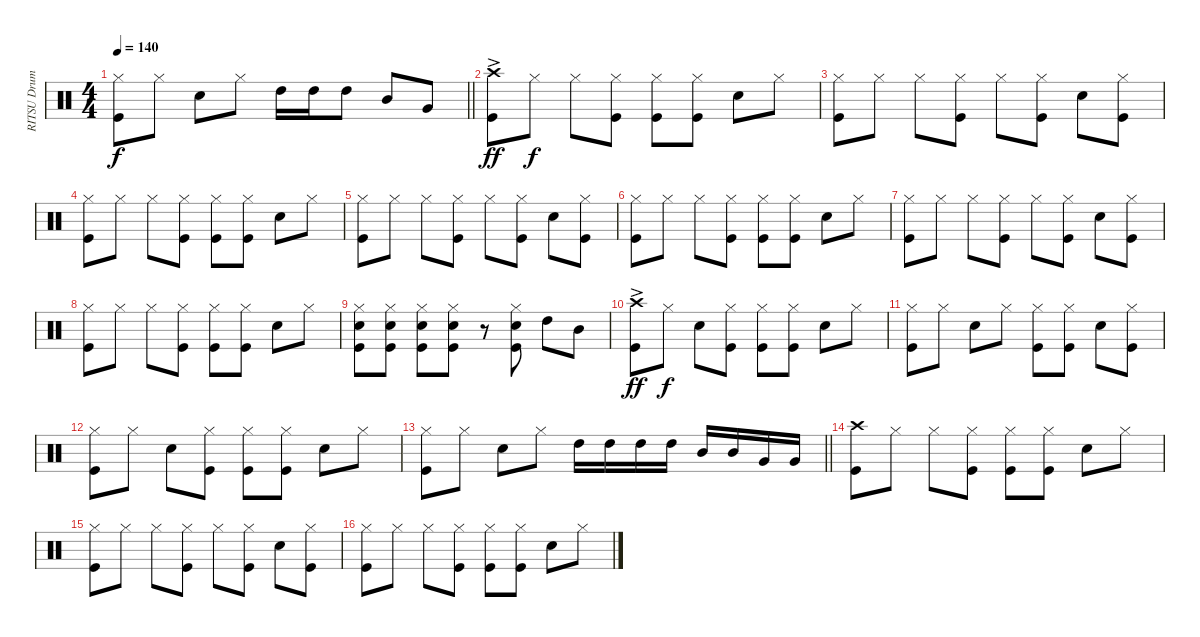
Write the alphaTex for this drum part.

\track ("RITSU Drums" "RITSU Drum") {instrument percussion}
\staff {score}
\articulation defaults
\ts (4 4)
\tempo 140
\clef neutral
\barLineRight lightlight
\ks c
("Hi-Hat (closed)" "Kick (hit)").8{dy f} "Hi-Hat (closed)".8 "Snare (hit) 2".8 "Hi-Hat (closed)".8 "High Tom (hit)".16 "High Tom (hit)".16 "High Tom (hit)".8 "Mid Tom (hit)".8 "Very Low Tom (hit)".8 |
("Crash high (hit)"{ac} "Kick (hit)").8{dy ff} "Hi-Hat (closed)".8{dy f} "Hi-Hat (closed)".8 ("Hi-Hat (closed)" "Kick (hit)").8 ("Hi-Hat (closed)" "Kick (hit)").8 ("Hi-Hat (closed)" "Kick (hit)").8 "Snare (hit) 2".8 "Hi-Hat (closed)".8 |
("Hi-Hat (closed)" "Kick (hit)").8 "Hi-Hat (closed)".8 "Hi-Hat (closed)".8 ("Hi-Hat (closed)" "Kick (hit)").8 "Hi-Hat (closed)".8 ("Hi-Hat (closed)" "Kick (hit)").8 "Snare (hit) 2".8 ("Hi-Hat (closed)" "Kick (hit)").8 |
("Kick (hit)" "Hi-Hat (closed)").8 "Hi-Hat (closed)".8 "Hi-Hat (closed)".8 ("Hi-Hat (closed)" "Kick (hit)").8 ("Hi-Hat (closed)" "Kick (hit)").8 ("Kick (hit)" "Hi-Hat (closed)").8 "Snare (hit) 2".8 "Hi-Hat (closed)".8 |
("Hi-Hat (closed)" "Kick (hit)").8 "Hi-Hat (closed)".8 "Hi-Hat (closed)".8 ("Hi-Hat (closed)" "Kick (hit)").8 "Hi-Hat (closed)".8 ("Hi-Hat (closed)" "Kick (hit)").8 "Snare (hit) 2".8 ("Hi-Hat (closed)" "Kick (hit)").8 |
("Kick (hit)" "Hi-Hat (closed)").8 "Hi-Hat (closed)".8 "Hi-Hat (closed)".8 ("Hi-Hat (closed)" "Kick (hit)").8 ("Hi-Hat (closed)" "Kick (hit)").8 ("Kick (hit)" "Hi-Hat (closed)").8 "Snare (hit) 2".8 "Hi-Hat (closed)".8 |
("Hi-Hat (closed)" "Kick (hit)").8 "Hi-Hat (closed)".8 "Hi-Hat (closed)".8 ("Hi-Hat (closed)" "Kick (hit)").8 "Hi-Hat (closed)".8 ("Hi-Hat (closed)" "Kick (hit)").8 "Snare (hit) 2".8 ("Hi-Hat (closed)" "Kick (hit)").8 |
("Hi-Hat (closed)" "Kick (hit)").8 "Hi-Hat (closed)".8 "Hi-Hat (closed)".8 ("Hi-Hat (closed)" "Kick (hit)").8 ("Hi-Hat (closed)" "Kick (hit)").8 ("Hi-Hat (closed)" "Kick (hit)").8 "Snare (hit) 2".8 "Hi-Hat (closed)".8 |
("Hi-Hat (closed)" "Kick (hit)" "Snare (hit) 2").8 ("Hi-Hat (closed)" "Kick (hit)" "Snare (hit) 2").8 ("Hi-Hat (closed)" "Kick (hit)" "Snare (hit) 2").8 ("Hi-Hat (closed)" "Kick (hit)" "Snare (hit) 2").8 r.8 ("Hi-Hat (closed)" "Kick (hit)" "Snare (hit) 2").8 "High Tom (hit)".8 "Mid Tom (hit)".8 |
("Crash high (hit)"{ac} "Kick (hit)").8{dy ff} "Hi-Hat (closed)".8{dy f} "Snare (hit) 2".8 ("Hi-Hat (closed)" "Kick (hit)").8 ("Hi-Hat (closed)" "Kick (hit)").8 ("Hi-Hat (closed)" "Kick (hit)").8 "Snare (hit) 2".8 "Hi-Hat (closed)".8 |
("Hi-Hat (closed)" "Kick (hit)").8 "Hi-Hat (closed)".8 "Snare (hit) 2".8 "Hi-Hat (closed)".8 ("Hi-Hat (closed)" "Kick (hit)").8 ("Hi-Hat (closed)" "Kick (hit)").8 "Snare (hit) 2".8 ("Hi-Hat (closed)" "Kick (hit)").8 |
("Hi-Hat (closed)" "Kick (hit)").8 "Hi-Hat (closed)".8 "Snare (hit) 2".8 ("Hi-Hat (closed)" "Kick (hit)").8 ("Kick (hit)" "Hi-Hat (closed)").8 ("Hi-Hat (closed)" "Kick (hit)").8 "Snare (hit) 2".8 "Hi-Hat (closed)".8 |
\barLineRight lightlight
("Hi-Hat (closed)" "Kick (hit)").8 "Hi-Hat (closed)".8 "Snare (hit) 2".8 "Hi-Hat (closed)".8 "High Tom (hit)".16 "High Tom (hit)".16 "High Tom (hit)".16 "High Tom (hit)".16 "Mid Tom (hit)".16 "Mid Tom (hit)".16 "Very Low Tom (hit)".16 "Very Low Tom (hit)".16 |
("Crash high (hit)" "Kick (hit)").8 "Hi-Hat (closed)".8 "Hi-Hat (closed)".8 ("Hi-Hat (closed)" "Kick (hit)").8 ("Hi-Hat (closed)" "Kick (hit)").8 ("Hi-Hat (closed)" "Kick (hit)").8 "Snare (hit) 2".8 "Hi-Hat (closed)".8 |
("Hi-Hat (closed)" "Kick (hit)").8 "Hi-Hat (closed)".8 "Hi-Hat (closed)".8 ("Hi-Hat (closed)" "Kick (hit)").8 "Hi-Hat (closed)".8 ("Hi-Hat (closed)" "Kick (hit)").8 "Snare (hit) 2".8 ("Kick (hit)" "Hi-Hat (closed)").8 |
("Hi-Hat (closed)" "Kick (hit)").8 "Hi-Hat (closed)".8 "Hi-Hat (closed)".8 ("Hi-Hat (closed)" "Kick (hit)").8 ("Hi-Hat (closed)" "Kick (hit)").8 ("Hi-Hat (closed)" "Kick (hit)").8 "Snare (hit) 2".8 "Hi-Hat (closed)".8
